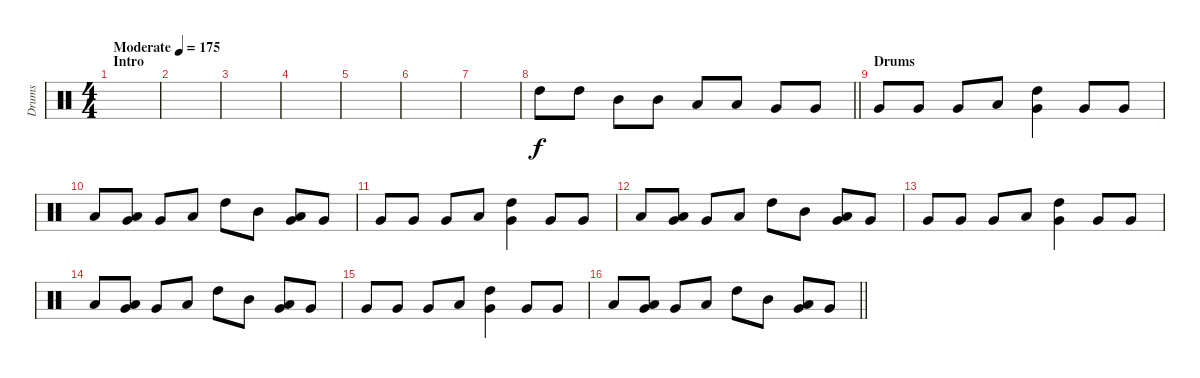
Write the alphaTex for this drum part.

\track ("Drums" "Drums") {instrument percussion}
\staff {score}
\articulation defaults
\ts (4 4)
\section ("" "Intro")
\tempo (175 "Moderate")
\clef neutral
\ks c
|
|
|
|
|
|
|
\barLineRight lightlight "High Tom (hit)".8 "High Tom (hit)".8 "Mid Tom (hit)".8 "Mid Tom (hit)".8 "Low Tom (hit)".8 "Low Tom (hit)".8 "Very Low Tom (hit)".8 "Very Low Tom (hit)".8
|
\section ("" "Drums")
"Very Low Tom (hit)".8 "Very Low Tom (hit)".8 "Very Low Tom (hit)".8 "Low Floor Tom (hit)".8 ("High Tom (hit)" "Very Low Tom (hit)").4 "Very Low Tom (hit)".8 "Very Low Tom (hit)".8 |
"Low Floor Tom (hit)".8 ("Low Tom (hit)" "Very Low Tom (hit)").8 "Very Low Tom (hit)".8 "Low Floor Tom (hit)".8 "High Tom (hit)".8 "Mid Tom (hit)".8 ("Low Tom (hit)" "Very Low Tom (hit)").8 "Very Low Tom (hit)".8 |
"Very Low Tom (hit)".8 "Very Low Tom (hit)".8 "Very Low Tom (hit)".8 "Low Floor Tom (hit)".8 ("High Tom (hit)" "Very Low Tom (hit)").4 "Very Low Tom (hit)".8 "Very Low Tom (hit)".8 |
"Low Floor Tom (hit)".8 ("Low Tom (hit)" "Very Low Tom (hit)").8 "Very Low Tom (hit)".8 "Low Floor Tom (hit)".8 "High Tom (hit)".8 "Mid Tom (hit)".8 ("Low Tom (hit)" "Very Low Tom (hit)").8 "Very Low Tom (hit)".8 |
"Very Low Tom (hit)".8 "Very Low Tom (hit)".8 "Very Low Tom (hit)".8 "Low Floor Tom (hit)".8 ("High Tom (hit)" "Very Low Tom (hit)").4 "Very Low Tom (hit)".8 "Very Low Tom (hit)".8 |
"Low Floor Tom (hit)".8 ("Low Tom (hit)" "Very Low Tom (hit)").8 "Very Low Tom (hit)".8 "Low Floor Tom (hit)".8 "High Tom (hit)".8 "Mid Tom (hit)".8 ("Low Tom (hit)" "Very Low Tom (hit)").8 "Very Low Tom (hit)".8 |
"Very Low Tom (hit)".8 "Very Low Tom (hit)".8 "Very Low Tom (hit)".8 "Low Floor Tom (hit)".8 ("High Tom (hit)" "Very Low Tom (hit)").4 "Very Low Tom (hit)".8 "Very Low Tom (hit)".8 |
\barLineRight lightlight "Low Floor Tom (hit)".8
("Low Tom (hit)" "Very Low Tom (hit)").8 "Very Low Tom (hit)".8 "Low Floor Tom (hit)".8 "High Tom (hit)".8 "Mid Tom (hit)".8 ("Low Tom (hit)" "Very Low Tom (hit)").8 "Very Low Tom (hit)".8
